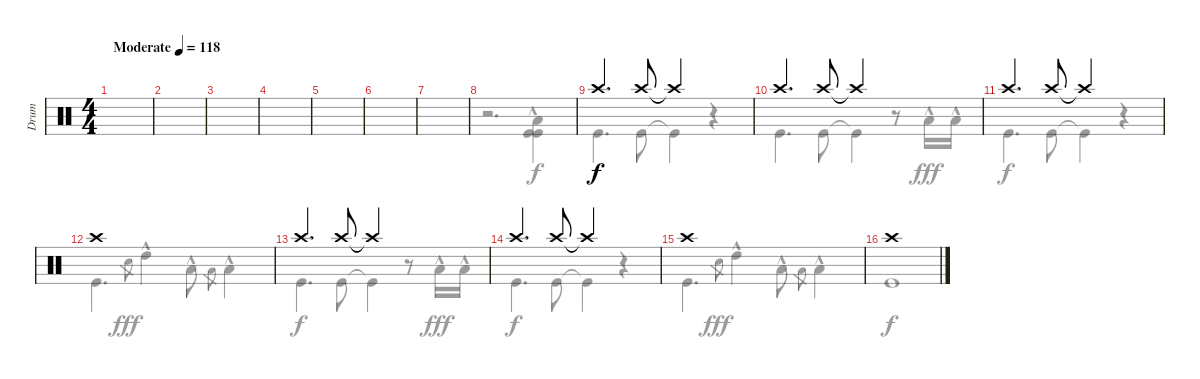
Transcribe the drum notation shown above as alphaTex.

\track ("Drum" "Drum") {instrument percussion}
\staff {score}
\articulation defaults
\voice
\ts (4 4)
\tempo (118 "Moderate")
\clef neutral
\ks c
|
|
|
|
|
|
|
|
"Crash high (hit)".4{d} "Crash high (hit)".8 "Crash high (hit)"{t}.2 |
"Crash high (hit)".4{d} "Crash high (hit)".8 "Crash high (hit)"{t}.2 |
"Crash high (hit)".4{d} "Crash high (hit)".8 "Crash high (hit)"{t}.2 |
"Crash high (hit)".1 |
"Crash high (hit)".4{d} "Crash high (hit)".8 "Crash high (hit)"{t}.2 |
"Crash high (hit)".4{d} "Crash high (hit)".8 "Crash high (hit)"{t}.2 |
"Crash high (hit)".1 |
"Crash high (hit)".1
\voice
\clef neutral
\ottava regular
\simile none
\ks c
|
|
|
|
|
|
|
r.2{d} ("Kick (hit)"{hac} "Low Floor Tom (hit)"{hac} "Kick (hit)").4 |
"Kick (hit)".4{d dy f} "Kick (hit)".8 "Kick (hit)"{t}.4 r.4 |
"Kick (hit)".4{d} "Kick (hit)".8 "Kick (hit)"{t}.4 r.8 "Low Tom (hit)"{hac}.16{dy fff} "Low Tom (hit)"{hac}.16 |
"Kick (hit)".4{d dy f} "Kick (hit)".8 "Kick (hit)"{t}.4 r.4 |
"Kick (hit)".4{d} "Snare (hit) 2".8{gr dy fff} "High Tom (hit)"{hac}.4 "Low Tom (hit)"{hac}.8 "Low Floor Tom (hit)".8{gr} "Low Floor Tom (hit)"{hac}.4 |
"Kick (hit)".4{d dy f} "Kick (hit)".8 "Kick (hit)"{t}.4 r.8 "Low Tom (hit)"{hac}.16{dy fff} "Low Tom (hit)"{hac}.16 |
"Kick (hit)".4{d dy f} "Kick (hit)".8 "Kick (hit)"{t}.4 r.4 |
"Kick (hit)".4{d} "Snare (hit) 2".8{gr dy fff} "High Tom (hit)"{hac}.4 "Low Tom (hit)"{hac}.8 "Low Floor Tom (hit)".8{gr} "Low Floor Tom (hit)"{hac}.4 |
"Kick (hit)".1{dy f}
